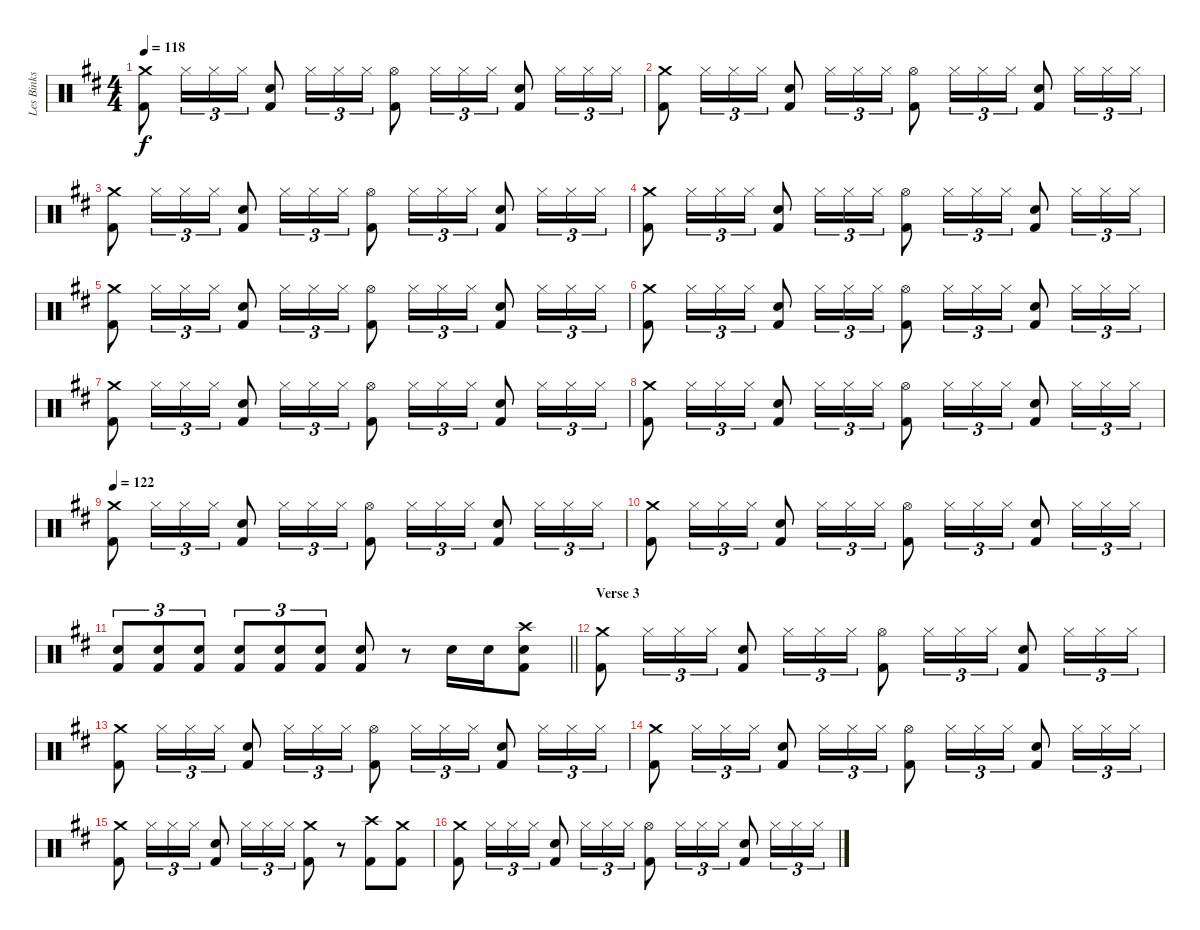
\track ("Les Binks" "Les Binks") {instrument percussion}
\staff {score}
\articulation defaults
\ts (4 4)
\tempo 118
\clef neutral
\ks d
("Crash medium (hit)" "Kick (hit) 2").8{dy f} "Hi-Hat (closed)".16{tu (3 2)} "Hi-Hat (closed)".16{tu (3 2)} "Hi-Hat (closed)".16{tu (3 2)} ("Snare (hit) 2" "Kick (hit) 2").8 "Hi-Hat (closed)".16{tu (3 2)} "Hi-Hat (closed)".16{tu (3 2)} "Hi-Hat (closed)".16{tu (3 2)} ("Hi-Hat (open)" "Kick (hit) 2").8 "Hi-Hat (closed)".16{tu (3 2)} "Hi-Hat (closed)".16{tu (3 2)} "Hi-Hat (closed)".16{tu (3 2)} ("Snare (hit) 2" "Kick (hit) 2").8 "Hi-Hat (closed)".16{tu (3 2)} "Hi-Hat (closed)".16{tu (3 2)} "Hi-Hat (closed)".16{tu (3 2)} |
("Crash medium (hit)" "Kick (hit) 2").8 "Hi-Hat (closed)".16{tu (3 2)} "Hi-Hat (closed)".16{tu (3 2)} "Hi-Hat (closed)".16{tu (3 2)} ("Snare (hit) 2" "Kick (hit) 2").8 "Hi-Hat (closed)".16{tu (3 2)} "Hi-Hat (closed)".16{tu (3 2)} "Hi-Hat (closed)".16{tu (3 2)} ("Hi-Hat (open)" "Kick (hit) 2").8 "Hi-Hat (closed)".16{tu (3 2)} "Hi-Hat (closed)".16{tu (3 2)} "Hi-Hat (closed)".16{tu (3 2)} ("Snare (hit) 2" "Kick (hit) 2").8 "Hi-Hat (closed)".16{tu (3 2)} "Hi-Hat (closed)".16{tu (3 2)} "Hi-Hat (closed)".16{tu (3 2)} |
("Crash medium (hit)" "Kick (hit) 2").8 "Hi-Hat (closed)".16{tu (3 2)} "Hi-Hat (closed)".16{tu (3 2)} "Hi-Hat (closed)".16{tu (3 2)} ("Snare (hit) 2" "Kick (hit) 2").8 "Hi-Hat (closed)".16{tu (3 2)} "Hi-Hat (closed)".16{tu (3 2)} "Hi-Hat (closed)".16{tu (3 2)} ("Hi-Hat (open)" "Kick (hit) 2").8 "Hi-Hat (closed)".16{tu (3 2)} "Hi-Hat (closed)".16{tu (3 2)} "Hi-Hat (closed)".16{tu (3 2)} ("Snare (hit) 2" "Kick (hit) 2").8 "Hi-Hat (closed)".16{tu (3 2)} "Hi-Hat (closed)".16{tu (3 2)} "Hi-Hat (closed)".16{tu (3 2)} |
("Crash medium (hit)" "Kick (hit) 2").8 "Hi-Hat (closed)".16{tu (3 2)} "Hi-Hat (closed)".16{tu (3 2)} "Hi-Hat (closed)".16{tu (3 2)} ("Snare (hit) 2" "Kick (hit) 2").8 "Hi-Hat (closed)".16{tu (3 2)} "Hi-Hat (closed)".16{tu (3 2)} "Hi-Hat (closed)".16{tu (3 2)} ("Hi-Hat (open)" "Kick (hit) 2").8 "Hi-Hat (closed)".16{tu (3 2)} "Hi-Hat (closed)".16{tu (3 2)} "Hi-Hat (closed)".16{tu (3 2)} ("Snare (hit) 2" "Kick (hit) 2").8 "Hi-Hat (closed)".16{tu (3 2)} "Hi-Hat (closed)".16{tu (3 2)} "Hi-Hat (closed)".16{tu (3 2)} |
("Crash medium (hit)" "Kick (hit) 2").8 "Hi-Hat (closed)".16{tu (3 2)} "Hi-Hat (closed)".16{tu (3 2)} "Hi-Hat (closed)".16{tu (3 2)} ("Snare (hit) 2" "Kick (hit) 2").8 "Hi-Hat (closed)".16{tu (3 2)} "Hi-Hat (closed)".16{tu (3 2)} "Hi-Hat (closed)".16{tu (3 2)} ("Hi-Hat (open)" "Kick (hit) 2").8 "Hi-Hat (closed)".16{tu (3 2)} "Hi-Hat (closed)".16{tu (3 2)} "Hi-Hat (closed)".16{tu (3 2)} ("Snare (hit) 2" "Kick (hit) 2").8 "Hi-Hat (closed)".16{tu (3 2)} "Hi-Hat (closed)".16{tu (3 2)} "Hi-Hat (closed)".16{tu (3 2)} |
("Crash medium (hit)" "Kick (hit) 2").8 "Hi-Hat (closed)".16{tu (3 2)} "Hi-Hat (closed)".16{tu (3 2)} "Hi-Hat (closed)".16{tu (3 2)} ("Snare (hit) 2" "Kick (hit) 2").8 "Hi-Hat (closed)".16{tu (3 2)} "Hi-Hat (closed)".16{tu (3 2)} "Hi-Hat (closed)".16{tu (3 2)} ("Hi-Hat (open)" "Kick (hit) 2").8 "Hi-Hat (closed)".16{tu (3 2)} "Hi-Hat (closed)".16{tu (3 2)} "Hi-Hat (closed)".16{tu (3 2)} ("Snare (hit) 2" "Kick (hit) 2").8 "Hi-Hat (closed)".16{tu (3 2)} "Hi-Hat (closed)".16{tu (3 2)} "Hi-Hat (closed)".16{tu (3 2)} |
("Crash medium (hit)" "Kick (hit) 2").8 "Hi-Hat (closed)".16{tu (3 2)} "Hi-Hat (closed)".16{tu (3 2)} "Hi-Hat (closed)".16{tu (3 2)} ("Snare (hit) 2" "Kick (hit) 2").8 "Hi-Hat (closed)".16{tu (3 2)} "Hi-Hat (closed)".16{tu (3 2)} "Hi-Hat (closed)".16{tu (3 2)} ("Hi-Hat (open)" "Kick (hit) 2").8 "Hi-Hat (closed)".16{tu (3 2)} "Hi-Hat (closed)".16{tu (3 2)} "Hi-Hat (closed)".16{tu (3 2)} ("Snare (hit) 2" "Kick (hit) 2").8 "Hi-Hat (closed)".16{tu (3 2)} "Hi-Hat (closed)".16{tu (3 2)} "Hi-Hat (closed)".16{tu (3 2)} |
("Crash medium (hit)" "Kick (hit) 2").8 "Hi-Hat (closed)".16{tu (3 2)} "Hi-Hat (closed)".16{tu (3 2)} "Hi-Hat (closed)".16{tu (3 2)} ("Snare (hit) 2" "Kick (hit) 2").8 "Hi-Hat (closed)".16{tu (3 2)} "Hi-Hat (closed)".16{tu (3 2)} "Hi-Hat (closed)".16{tu (3 2)} ("Hi-Hat (open)" "Kick (hit) 2").8 "Hi-Hat (closed)".16{tu (3 2)} "Hi-Hat (closed)".16{tu (3 2)} "Hi-Hat (closed)".16{tu (3 2)} ("Snare (hit) 2" "Kick (hit) 2").8 "Hi-Hat (closed)".16{tu (3 2)} "Hi-Hat (closed)".16{tu (3 2)} "Hi-Hat (closed)".16{tu (3 2)} |
\tempo 122
("Crash medium (hit)" "Kick (hit) 2").8 "Hi-Hat (closed)".16{tu (3 2)} "Hi-Hat (closed)".16{tu (3 2)} "Hi-Hat (closed)".16{tu (3 2)} ("Snare (hit) 2" "Kick (hit) 2").8 "Hi-Hat (closed)".16{tu (3 2)} "Hi-Hat (closed)".16{tu (3 2)} "Hi-Hat (closed)".16{tu (3 2)} ("Hi-Hat (open)" "Kick (hit) 2").8 "Hi-Hat (closed)".16{tu (3 2)} "Hi-Hat (closed)".16{tu (3 2)} "Hi-Hat (closed)".16{tu (3 2)} ("Snare (hit) 2" "Kick (hit) 2").8 "Hi-Hat (closed)".16{tu (3 2)} "Hi-Hat (closed)".16{tu (3 2)} "Hi-Hat (closed)".16{tu (3 2)} |
("Crash medium (hit)" "Kick (hit) 2").8 "Hi-Hat (closed)".16{tu (3 2)} "Hi-Hat (closed)".16{tu (3 2)} "Hi-Hat (closed)".16{tu (3 2)} ("Snare (hit) 2" "Kick (hit) 2").8 "Hi-Hat (closed)".16{tu (3 2)} "Hi-Hat (closed)".16{tu (3 2)} "Hi-Hat (closed)".16{tu (3 2)} ("Hi-Hat (open)" "Kick (hit) 2").8 "Hi-Hat (closed)".16{tu (3 2)} "Hi-Hat (closed)".16{tu (3 2)} "Hi-Hat (closed)".16{tu (3 2)} ("Snare (hit) 2" "Kick (hit) 2").8 "Hi-Hat (closed)".16{tu (3 2)} "Hi-Hat (closed)".16{tu (3 2)} "Hi-Hat (closed)".16{tu (3 2)} |
\barLineRight lightlight
("Snare (hit) 2" "Kick (hit) 2").8{tu (3 2)} ("Snare (hit) 2" "Kick (hit) 2").8{tu (3 2)} ("Snare (hit) 2" "Kick (hit) 2").8{tu (3 2)} ("Snare (hit) 2" "Kick (hit) 2").8{tu (3 2)} ("Snare (hit) 2" "Kick (hit) 2").8{tu (3 2)} ("Snare (hit) 2" "Kick (hit) 2").8{tu (3 2)} ("Snare (hit) 2" "Kick (hit) 2").8 r.8 "Snare (hit) 2".16 "Snare (hit) 2".16 ("Crash high (hit)" "Snare (hit) 2" "Kick (hit) 2").8 |
\section ("" "Verse 3")
("Crash medium (hit)" "Kick (hit) 2").8 "Hi-Hat (closed)".16{tu (3 2)} "Hi-Hat (closed)".16{tu (3 2)} "Hi-Hat (closed)".16{tu (3 2)} ("Snare (hit) 2" "Kick (hit) 2").8 "Hi-Hat (closed)".16{tu (3 2)} "Hi-Hat (closed)".16{tu (3 2)} "Hi-Hat (closed)".16{tu (3 2)} ("Hi-Hat (open)" "Kick (hit) 2").8 "Hi-Hat (closed)".16{tu (3 2)} "Hi-Hat (closed)".16{tu (3 2)} "Hi-Hat (closed)".16{tu (3 2)} ("Snare (hit) 2" "Kick (hit) 2").8 "Hi-Hat (closed)".16{tu (3 2)} "Hi-Hat (closed)".16{tu (3 2)} "Hi-Hat (closed)".16{tu (3 2)} |
("Crash medium (hit)" "Kick (hit) 2").8 "Hi-Hat (closed)".16{tu (3 2)} "Hi-Hat (closed)".16{tu (3 2)} "Hi-Hat (closed)".16{tu (3 2)} ("Snare (hit) 2" "Kick (hit) 2").8 "Hi-Hat (closed)".16{tu (3 2)} "Hi-Hat (closed)".16{tu (3 2)} "Hi-Hat (closed)".16{tu (3 2)} ("Hi-Hat (open)" "Kick (hit) 2").8 "Hi-Hat (closed)".16{tu (3 2)} "Hi-Hat (closed)".16{tu (3 2)} "Hi-Hat (closed)".16{tu (3 2)} ("Snare (hit) 2" "Kick (hit) 2").8 "Hi-Hat (closed)".16{tu (3 2)} "Hi-Hat (closed)".16{tu (3 2)} "Hi-Hat (closed)".16{tu (3 2)} |
("Crash medium (hit)" "Kick (hit) 2").8 "Hi-Hat (closed)".16{tu (3 2)} "Hi-Hat (closed)".16{tu (3 2)} "Hi-Hat (closed)".16{tu (3 2)} ("Snare (hit) 2" "Kick (hit) 2").8 "Hi-Hat (closed)".16{tu (3 2)} "Hi-Hat (closed)".16{tu (3 2)} "Hi-Hat (closed)".16{tu (3 2)} ("Hi-Hat (open)" "Kick (hit) 2").8 "Hi-Hat (closed)".16{tu (3 2)} "Hi-Hat (closed)".16{tu (3 2)} "Hi-Hat (closed)".16{tu (3 2)} ("Snare (hit) 2" "Kick (hit) 2").8 "Hi-Hat (closed)".16{tu (3 2)} "Hi-Hat (closed)".16{tu (3 2)} "Hi-Hat (closed)".16{tu (3 2)} |
("Crash medium (hit)" "Kick (hit) 2").8 "Hi-Hat (closed)".16{tu (3 2)} "Hi-Hat (closed)".16{tu (3 2)} "Hi-Hat (closed)".16{tu (3 2)} ("Snare (hit) 2" "Kick (hit) 2").8 "Hi-Hat (closed)".16{tu (3 2)} "Hi-Hat (closed)".16{tu (3 2)} "Hi-Hat (closed)".16{tu (3 2)} ("Crash medium (hit)" "Kick (hit) 2").8 r.8 ("Crash high (hit)" "Kick (hit) 2").8 ("Crash medium (hit)" "Kick (hit) 2").8 |
("Crash medium (hit)" "Kick (hit) 2").8 "Hi-Hat (closed)".16{tu (3 2)} "Hi-Hat (closed)".16{tu (3 2)} "Hi-Hat (closed)".16{tu (3 2)} ("Snare (hit) 2" "Kick (hit) 2").8 "Hi-Hat (closed)".16{tu (3 2)} "Hi-Hat (closed)".16{tu (3 2)} "Hi-Hat (closed)".16{tu (3 2)} ("Hi-Hat (open)" "Kick (hit) 2").8 "Hi-Hat (closed)".16{tu (3 2)} "Hi-Hat (closed)".16{tu (3 2)} "Hi-Hat (closed)".16{tu (3 2)} ("Snare (hit) 2" "Kick (hit) 2").8 "Hi-Hat (closed)".16{tu (3 2)} "Hi-Hat (closed)".16{tu (3 2)} "Hi-Hat (closed)".16{tu (3 2)}
